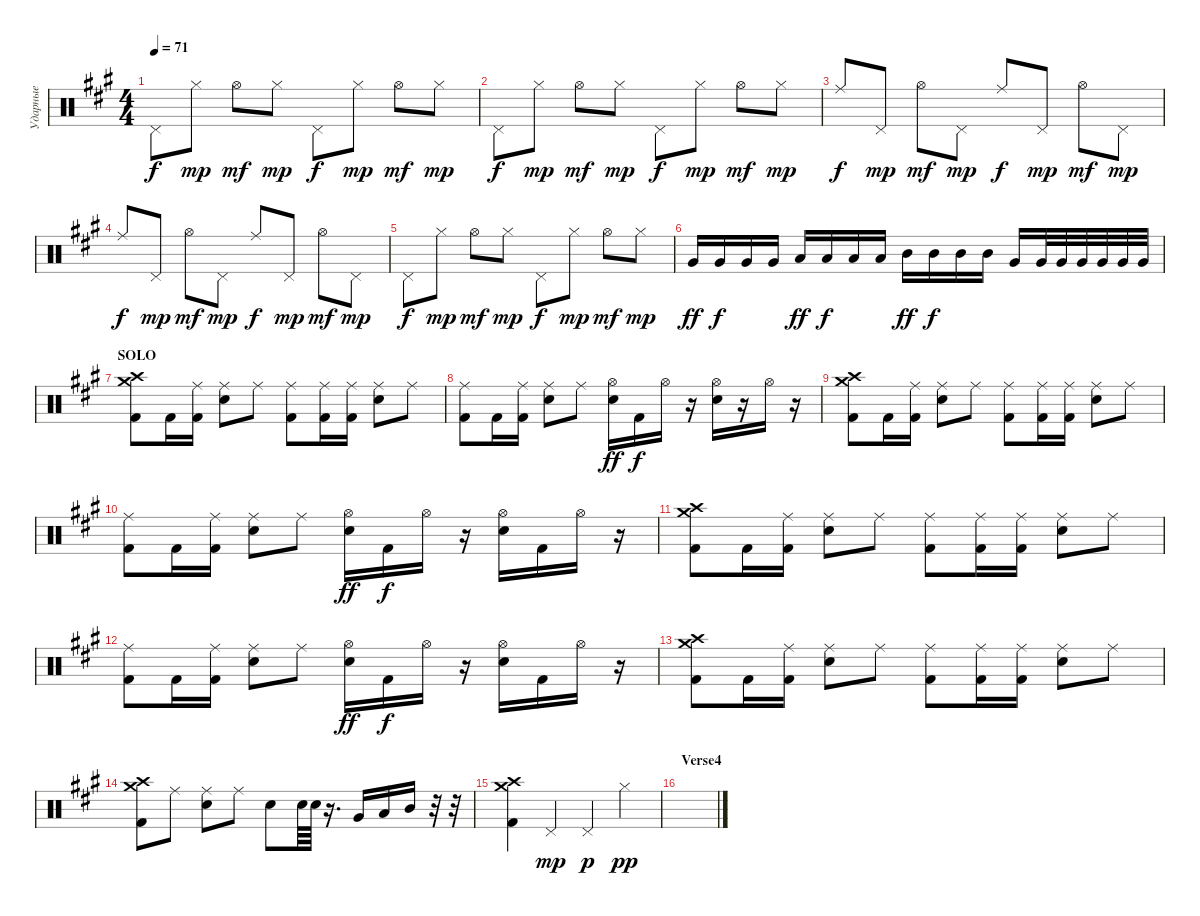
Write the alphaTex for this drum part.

\track ("Ударные" "Ударные") {instrument percussion}
\staff {score}
\articulation defaults
\ts (4 4)
\tempo 71
\clef neutral
\ks f#minor "Pedal Hi-Hat (hit)".8{dy f} "Hi-Hat (closed)".8{dy mp} "Hi-Hat (open)".8{dy mf} "Hi-Hat (closed)".8{dy mp} "Pedal Hi-Hat (hit)".8{dy f} "Hi-Hat (closed)".8{dy mp} "Hi-Hat (open)".8{dy mf} "Hi-Hat (closed)".8{dy mp}
|
"Pedal Hi-Hat (hit)".8{dy f} "Hi-Hat (closed)".8{dy mp} "Hi-Hat (open)".8{dy mf} "Hi-Hat (closed)".8{dy mp} "Pedal Hi-Hat (hit)".8{dy f} "Hi-Hat (closed)".8{dy mp} "Hi-Hat (open)".8{dy mf} "Hi-Hat (closed)".8{dy mp} |
"Ride (middle)".8{dy f} "Pedal Hi-Hat (hit)".8{dy mp} "Hi-Hat (open)".8{dy mf} "Pedal Hi-Hat (hit)".8{dy mp} "Ride (middle)".8{dy f} "Pedal Hi-Hat (hit)".8{dy mp} "Hi-Hat (open)".8{dy mf} "Pedal Hi-Hat (hit)".8{dy mp} |
"Ride (middle)".8{dy f} "Pedal Hi-Hat (hit)".8{dy mp} "Hi-Hat (open)".8{dy mf} "Pedal Hi-Hat (hit)".8{dy mp} "Ride (middle)".8{dy f} "Pedal Hi-Hat (hit)".8{dy mp} "Hi-Hat (open)".8{dy mf} "Pedal Hi-Hat (hit)".8{dy mp} |
"Pedal Hi-Hat (hit)".8{dy f} "Hi-Hat (closed)".8{dy mp} "Hi-Hat (open)".8{dy mf} "Hi-Hat (closed)".8{dy mp} "Pedal Hi-Hat (hit)".8{dy f} "Hi-Hat (closed)".8{dy mp} "Hi-Hat (open)".8{dy mf} "Hi-Hat (closed)".8{dy mp} |
"Very Low Tom (hit)".16{dy ff} "Very Low Tom (hit)".16{dy f} "Very Low Tom (hit)".16 "Very Low Tom (hit)".16 "Low Tom (hit)".16{dy ff} "Low Tom (hit)".16{dy f} "Low Tom (hit)".16 "Low Tom (hit)".16 "Mid Tom (hit)".16{dy ff} "Mid Tom (hit)".16{dy f} "Mid Tom (hit)".16 "Mid Tom (hit)".16 "Very Low Tom (hit)".16 "Very Low Tom (hit)".32 "Very Low Tom (hit)".32 "Very Low Tom (hit)".32 "Very Low Tom (hit)".32 "Very Low Tom (hit)".32 "Very Low Tom (hit)".32 |
\section ("" "SOLO")
("Crash high (hit)" "Kick (hit) 2" "Crash medium (hit)").8 "Kick (hit) 2".16 ("Ride (middle)" "Kick (hit) 2").16 ("Ride (middle)" "Electric Snare (hit)").8 "Ride (middle)".8 ("Ride (middle)" "Kick (hit) 2").8 ("Ride (middle)" "Kick (hit) 2").16 ("Ride (middle)" "Kick (hit) 2").16 ("Ride (middle)" "Electric Snare (hit)").8 "Ride (middle)".8 |
("Ride (middle)" "Kick (hit) 2").8 "Kick (hit) 2".16 ("Ride (middle)" "Kick (hit) 2").16 ("Ride (middle)" "Electric Snare (hit)").8 "Ride (middle)".8 ("Hi-Hat (open)" "Electric Snare (hit)").16{dy ff} "Kick (hit) 2".16{dy f} "Hi-Hat (open)".16 r.16 ("Hi-Hat (open)" "Electric Snare (hit)").16 r.16 "Hi-Hat (open)".16 r.16 |
("Crash high (hit)" "Kick (hit) 2" "Crash medium (hit)").8 "Kick (hit) 2".16 ("Ride (middle)" "Kick (hit) 2").16 ("Ride (middle)" "Electric Snare (hit)").8 "Ride (middle)".8 ("Ride (middle)" "Kick (hit) 2").8 ("Ride (middle)" "Kick (hit) 2").16 ("Ride (middle)" "Kick (hit) 2").16 ("Ride (middle)" "Electric Snare (hit)").8 "Ride (middle)".8 |
("Ride (middle)" "Kick (hit) 2").8 "Kick (hit) 2".16 ("Ride (middle)" "Kick (hit) 2").16 ("Ride (middle)" "Electric Snare (hit)").8 "Ride (middle)".8 ("Hi-Hat (open)" "Electric Snare (hit)").16{dy ff} "Kick (hit) 2".16{dy f} "Hi-Hat (open)".16 r.16 ("Hi-Hat (open)" "Electric Snare (hit)").16 "Kick (hit) 2".16 "Hi-Hat (open)".16 r.16 |
("Crash high (hit)" "Kick (hit) 2" "Crash medium (hit)").8 "Kick (hit) 2".16 ("Ride (middle)" "Kick (hit) 2").16 ("Ride (middle)" "Electric Snare (hit)").8 "Ride (middle)".8 ("Ride (middle)" "Kick (hit) 2").8 ("Ride (middle)" "Kick (hit) 2").16 ("Ride (middle)" "Kick (hit) 2").16 ("Ride (middle)" "Electric Snare (hit)").8 "Ride (middle)".8 |
("Ride (middle)" "Kick (hit) 2").8 "Kick (hit) 2".16 ("Ride (middle)" "Kick (hit) 2").16 ("Ride (middle)" "Electric Snare (hit)").8 "Ride (middle)".8 ("Hi-Hat (open)" "Electric Snare (hit)").16{dy ff} "Kick (hit) 2".16{dy f} "Hi-Hat (open)".16 r.16 ("Hi-Hat (open)" "Electric Snare (hit)").16 "Kick (hit) 2".16 "Hi-Hat (open)".16 r.16 |
("Crash high (hit)" "Kick (hit) 2" "Crash medium (hit)").8 "Kick (hit) 2".16 ("Ride (middle)" "Kick (hit) 2").16 ("Ride (middle)" "Electric Snare (hit)").8 "Ride (middle)".8 ("Ride (middle)" "Kick (hit) 2").8 ("Ride (middle)" "Kick (hit) 2").16 ("Ride (middle)" "Kick (hit) 2").16 ("Ride (middle)" "Electric Snare (hit)").8 "Ride (middle)".8 |
("Crash high (hit)" "Kick (hit) 2" "Crash medium (hit)").8 "Ride (middle)".8 ("Ride (middle)" "Electric Snare (hit)").8 "Ride (middle)".8 "Electric Snare (hit)".8 "Electric Snare (hit)".64 "Electric Snare (hit)".64 r.16{d} "Very Low Tom (hit)".16 "Low Tom (hit)".16 "Mid Tom (hit)".16 r.32 r.32 |
("Crash high (hit)" "Kick (hit) 2" "Crash medium (hit)").4 "Pedal Hi-Hat (hit)".4{dy mp} "Pedal Hi-Hat (hit)".4{dy p} "Hi-Hat (closed)".4{dy pp} |
\section ("" "Verse4")
